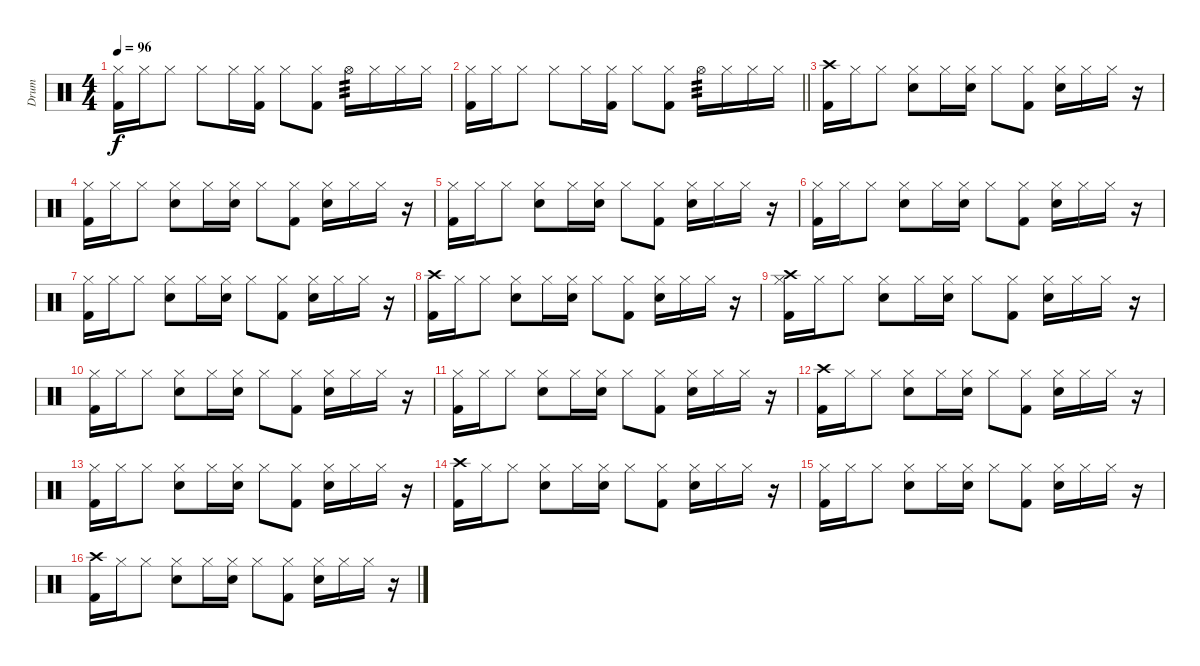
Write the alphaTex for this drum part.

\track ("Drum" "Drum") {instrument percussion}
\staff {score}
\articulation defaults
\ts (4 4)
\tempo 96
\clef neutral
\ks c
("Hi-Hat (closed)" "Kick (hit) 2").16{dy f} "Hi-Hat (closed)".16 "Hi-Hat (closed)".8 "Hi-Hat (closed)".8 "Hi-Hat (closed)".16 ("Hi-Hat (closed)" "Kick (hit) 2").16 "Hi-Hat (closed)".8 ("Hi-Hat (closed)" "Kick (hit) 2").8 "Hi-Hat (open)".16{tp 3} "Hi-Hat (closed)".16 "Hi-Hat (closed)".16 "Hi-Hat (closed)".16 |
\barLineRight lightlight
("Hi-Hat (closed)" "Kick (hit) 2").16 "Hi-Hat (closed)".16 "Hi-Hat (closed)".8 "Hi-Hat (closed)".8 "Hi-Hat (closed)".16 ("Hi-Hat (closed)" "Kick (hit) 2").16 "Hi-Hat (closed)".8 ("Hi-Hat (closed)" "Kick (hit) 2").8 "Hi-Hat (open)".16{tp 3} "Hi-Hat (closed)".16 "Hi-Hat (closed)".16 "Hi-Hat (closed)".16 |
\section ("" "")
("Crash high (hit)" "Kick (hit) 2").16 "Hi-Hat (closed)".16 "Hi-Hat (closed)".8 ("Hi-Hat (closed)" "Snare (hit) 2").8 "Hi-Hat (closed)".16 ("Hi-Hat (closed)" "Snare (hit) 2").16 "Hi-Hat (closed)".8 ("Hi-Hat (closed)" "Kick (hit) 2").8 ("Hi-Hat (closed)" "Snare (hit) 2").16 "Hi-Hat (closed)".16 "Hi-Hat (closed)".16 r.16 |
("Hi-Hat (closed)" "Kick (hit) 2").16 "Hi-Hat (closed)".16 "Hi-Hat (closed)".8 ("Hi-Hat (closed)" "Snare (hit) 2").8 "Hi-Hat (closed)".16 ("Hi-Hat (closed)" "Snare (hit) 2").16 "Hi-Hat (closed)".8 ("Hi-Hat (closed)" "Kick (hit) 2").8 ("Hi-Hat (closed)" "Snare (hit) 2").16 "Hi-Hat (closed)".16 "Hi-Hat (closed)".16 r.16 |
("Hi-Hat (closed)" "Kick (hit) 2").16 "Hi-Hat (closed)".16 "Hi-Hat (closed)".8 ("Hi-Hat (closed)" "Snare (hit) 2").8 "Hi-Hat (closed)".16 ("Hi-Hat (closed)" "Snare (hit) 2").16 "Hi-Hat (closed)".8 ("Hi-Hat (closed)" "Kick (hit) 2").8 ("Hi-Hat (closed)" "Snare (hit) 2").16 "Hi-Hat (closed)".16 "Hi-Hat (closed)".16 r.16 |
("Hi-Hat (closed)" "Kick (hit) 2").16 "Hi-Hat (closed)".16 "Hi-Hat (closed)".8 ("Hi-Hat (closed)" "Snare (hit) 2").8 "Hi-Hat (closed)".16 ("Hi-Hat (closed)" "Snare (hit) 2").16 "Hi-Hat (closed)".8 ("Hi-Hat (closed)" "Kick (hit) 2").8 ("Hi-Hat (closed)" "Snare (hit) 2").16 "Hi-Hat (closed)".16 "Hi-Hat (closed)".16 r.16 |
("Hi-Hat (closed)" "Kick (hit) 2").16 "Hi-Hat (closed)".16 "Hi-Hat (closed)".8 ("Hi-Hat (closed)" "Snare (hit) 2").8 "Hi-Hat (closed)".16 ("Hi-Hat (closed)" "Snare (hit) 2").16 "Hi-Hat (closed)".8 ("Hi-Hat (closed)" "Kick (hit) 2").8 ("Hi-Hat (closed)" "Snare (hit) 2").16 "Hi-Hat (closed)".16 "Hi-Hat (closed)".16 r.16 |
("Crash high (hit)" "Kick (hit) 2").16 "Hi-Hat (closed)".16 "Hi-Hat (closed)".8 ("Hi-Hat (closed)" "Snare (hit) 2").8 "Hi-Hat (closed)".16 ("Hi-Hat (closed)" "Snare (hit) 2").16 "Hi-Hat (closed)".8 ("Hi-Hat (closed)" "Kick (hit) 2").8 ("Hi-Hat (closed)" "Snare (hit) 2").16 "Hi-Hat (closed)".16 "Hi-Hat (closed)".16 r.16 |
("Crash high (hit)" "Hi-Hat (closed)" "Kick (hit) 2").16 "Hi-Hat (closed)".16 "Hi-Hat (closed)".8 ("Hi-Hat (closed)" "Snare (hit) 2").8 "Hi-Hat (closed)".16 ("Hi-Hat (closed)" "Snare (hit) 2").16 "Hi-Hat (closed)".8 ("Hi-Hat (closed)" "Kick (hit) 2").8 ("Hi-Hat (closed)" "Snare (hit) 2").16 "Hi-Hat (closed)".16 "Hi-Hat (closed)".16 r.16 |
("Hi-Hat (closed)" "Kick (hit) 2").16 "Hi-Hat (closed)".16 "Hi-Hat (closed)".8 ("Hi-Hat (closed)" "Snare (hit) 2").8 "Hi-Hat (closed)".16 ("Hi-Hat (closed)" "Snare (hit) 2").16 "Hi-Hat (closed)".8 ("Hi-Hat (closed)" "Kick (hit) 2").8 ("Hi-Hat (closed)" "Snare (hit) 2").16 "Hi-Hat (closed)".16 "Hi-Hat (closed)".16 r.16 |
("Hi-Hat (closed)" "Kick (hit) 2").16 "Hi-Hat (closed)".16 "Hi-Hat (closed)".8 ("Hi-Hat (closed)" "Snare (hit) 2").8 "Hi-Hat (closed)".16 ("Hi-Hat (closed)" "Snare (hit) 2").16 "Hi-Hat (closed)".8 ("Hi-Hat (closed)" "Kick (hit) 2").8 ("Hi-Hat (closed)" "Snare (hit) 2").16 "Hi-Hat (closed)".16 "Hi-Hat (closed)".16 r.16 |
("Crash high (hit)" "Kick (hit) 2").16 "Hi-Hat (closed)".16 "Hi-Hat (closed)".8 ("Hi-Hat (closed)" "Snare (hit) 2").8 "Hi-Hat (closed)".16 ("Hi-Hat (closed)" "Snare (hit) 2").16 "Hi-Hat (closed)".8 ("Hi-Hat (closed)" "Kick (hit) 2").8 ("Hi-Hat (closed)" "Snare (hit) 2").16 "Hi-Hat (closed)".16 "Hi-Hat (closed)".16 r.16 |
("Hi-Hat (closed)" "Kick (hit) 2").16 "Hi-Hat (closed)".16 "Hi-Hat (closed)".8 ("Hi-Hat (closed)" "Snare (hit) 2").8 "Hi-Hat (closed)".16 ("Hi-Hat (closed)" "Snare (hit) 2").16 "Hi-Hat (closed)".8 ("Hi-Hat (closed)" "Kick (hit) 2").8 ("Hi-Hat (closed)" "Snare (hit) 2").16 "Hi-Hat (closed)".16 "Hi-Hat (closed)".16 r.16 |
("Crash high (hit)" "Kick (hit) 2").16 "Hi-Hat (closed)".16 "Hi-Hat (closed)".8 ("Hi-Hat (closed)" "Snare (hit) 2").8 "Hi-Hat (closed)".16 ("Hi-Hat (closed)" "Snare (hit) 2").16 "Hi-Hat (closed)".8 ("Hi-Hat (closed)" "Kick (hit) 2").8 ("Hi-Hat (closed)" "Snare (hit) 2").16 "Hi-Hat (closed)".16 "Hi-Hat (closed)".16 r.16 |
("Hi-Hat (closed)" "Kick (hit) 2").16 "Hi-Hat (closed)".16 "Hi-Hat (closed)".8 ("Hi-Hat (closed)" "Snare (hit) 2").8 "Hi-Hat (closed)".16 ("Hi-Hat (closed)" "Snare (hit) 2").16 "Hi-Hat (closed)".8 ("Hi-Hat (closed)" "Kick (hit) 2").8 ("Hi-Hat (closed)" "Snare (hit) 2").16 "Hi-Hat (closed)".16 "Hi-Hat (closed)".16 r.16 |
("Crash high (hit)" "Kick (hit) 2").16 "Hi-Hat (closed)".16 "Hi-Hat (closed)".8 ("Hi-Hat (closed)" "Snare (hit) 2").8 "Hi-Hat (closed)".16 ("Hi-Hat (closed)" "Snare (hit) 2").16 "Hi-Hat (closed)".8 ("Hi-Hat (closed)" "Kick (hit) 2").8 ("Hi-Hat (closed)" "Snare (hit) 2").16 "Hi-Hat (closed)".16 "Hi-Hat (closed)".16 r.16
